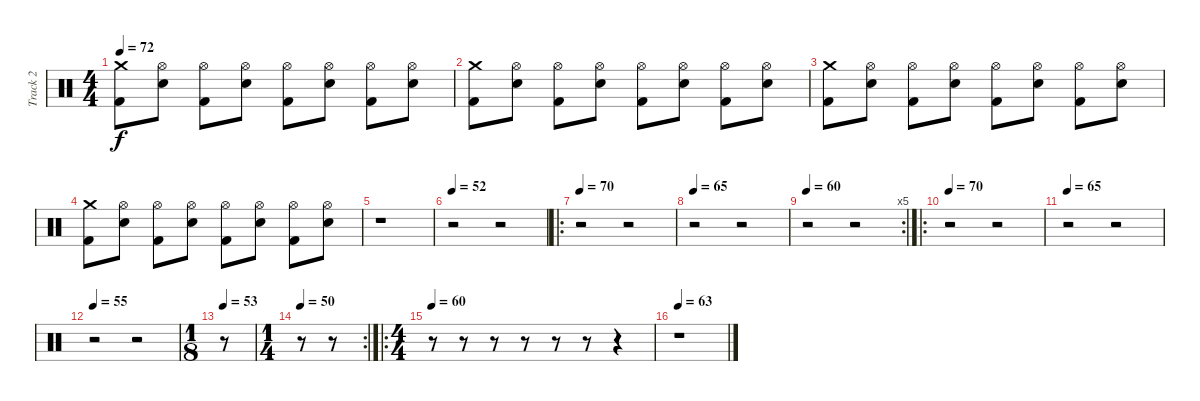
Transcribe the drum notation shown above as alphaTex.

\track ("Track 2" "Track 2") {instrument percussion}
\staff {score}
\articulation defaults
\ts (4 4)
\tempo 72
\clef neutral
\ks c
("Kick (hit) 2" "Crash medium (hit)").8{dy f} ("Snare (hit) 2" "Hi-Hat (open)").8 ("Kick (hit) 2" "Hi-Hat (open)").8 ("Snare (hit) 2" "Hi-Hat (open)").8 ("Kick (hit) 2" "Hi-Hat (open)").8 ("Snare (hit) 2" "Hi-Hat (open)").8 ("Kick (hit) 2" "Hi-Hat (open)").8 ("Snare (hit) 2" "Hi-Hat (open)").8 |
("Kick (hit) 2" "Crash medium (hit)").8 ("Snare (hit) 2" "Hi-Hat (open)").8 ("Kick (hit) 2" "Hi-Hat (open)").8 ("Snare (hit) 2" "Hi-Hat (open)").8 ("Kick (hit) 2" "Hi-Hat (open)").8 ("Snare (hit) 2" "Hi-Hat (open)").8 ("Kick (hit) 2" "Hi-Hat (open)").8 ("Snare (hit) 2" "Hi-Hat (open)").8 |
("Kick (hit) 2" "Crash medium (hit)").8 ("Snare (hit) 2" "Hi-Hat (open)").8 ("Kick (hit) 2" "Hi-Hat (open)").8 ("Snare (hit) 2" "Hi-Hat (open)").8 ("Kick (hit) 2" "Hi-Hat (open)").8 ("Snare (hit) 2" "Hi-Hat (open)").8 ("Kick (hit) 2" "Hi-Hat (open)").8 ("Snare (hit) 2" "Hi-Hat (open)").8 |
("Kick (hit) 2" "Crash medium (hit)").8 ("Snare (hit) 2" "Hi-Hat (open)").8 ("Kick (hit) 2" "Hi-Hat (open)").8 ("Snare (hit) 2" "Hi-Hat (open)").8 ("Kick (hit) 2" "Hi-Hat (open)").8 ("Snare (hit) 2" "Hi-Hat (open)").8 ("Kick (hit) 2" "Hi-Hat (open)").8 ("Snare (hit) 2" "Hi-Hat (open)").8 |
r.1 |
\tempo 52
r.2 r.2 |
\ro
\tempo 70
r.2 r.2 |
\tempo 65
r.2 r.2 |
\rc 5
\tempo 60
r.2 r.2 |
\ro
\tempo 70
r.2 r.2 |
\tempo 65
r.2 r.2 |
\tempo 55
r.2 r.2 |
\ts (1 8)
\tempo 53
r.8 |
\rc 2
\ts (1 4)
\tempo 50
r.8 r.8 |
\ro
\ts (4 4)
\tempo 60
r.8 r.8 r.8 r.8 r.8 r.8 r.4 |
\tempo 63
r.1
